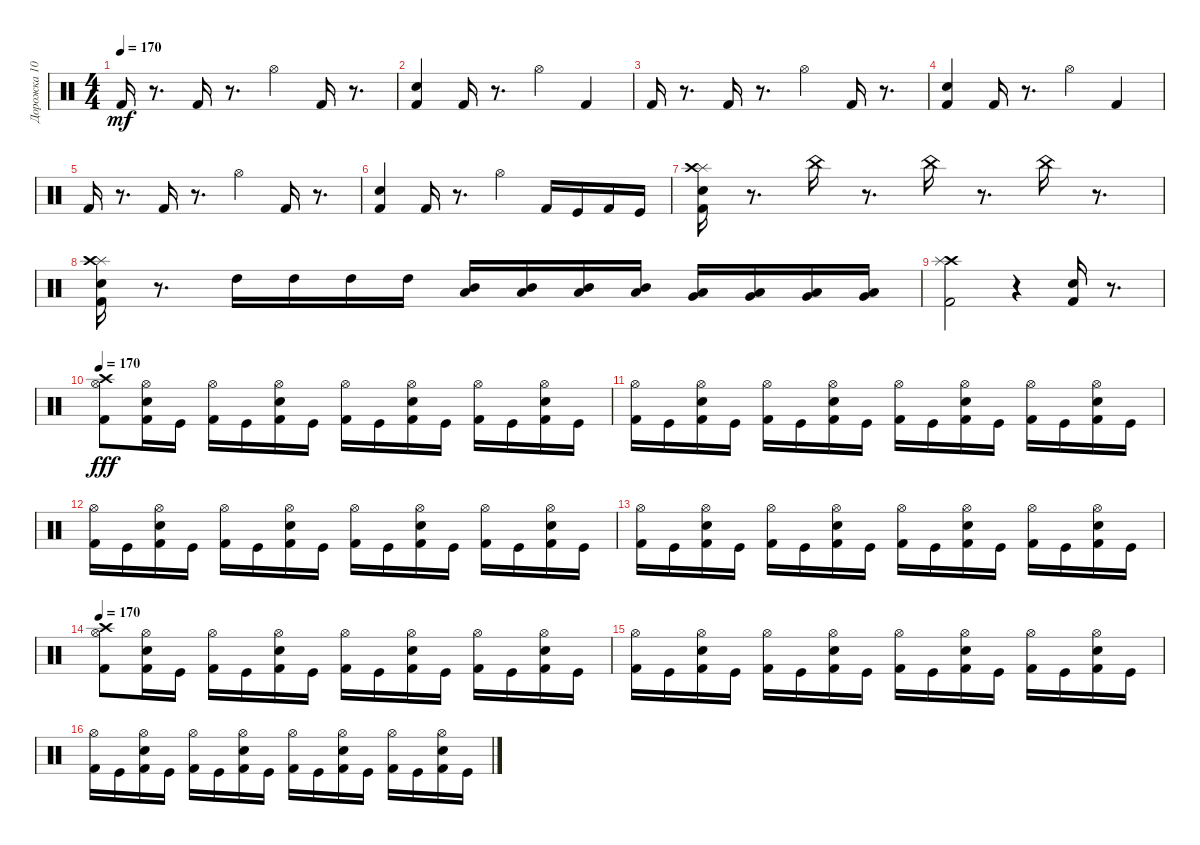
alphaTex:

\track ("Дорожка 10" "Дорожка 10") {instrument percussion}
\staff {score}
\articulation defaults
\ts (4 4)
\tempo 170
\clef neutral
\ks c "Kick (hit) 2".16{dy mf}
r.8{d} "Kick (hit) 2".16 r.8{d} "Hi-Hat (open)".4 "Kick (hit) 2".16 r.8{d} |
("Electric Snare (hit)" "Kick (hit) 2").4 "Kick (hit) 2".16 r.8{d} "Hi-Hat (open)".4 "Kick (hit) 2".4 |
"Kick (hit) 2".16 r.8{d} "Kick (hit) 2".16 r.8{d} "Hi-Hat (open)".4 "Kick (hit) 2".16 r.8{d} |
("Electric Snare (hit)" "Kick (hit) 2").4 "Kick (hit) 2".16 r.8{d} "Hi-Hat (open)".4 "Kick (hit) 2".4 |
"Kick (hit) 2".16 r.8{d} "Kick (hit) 2".16 r.8{d} "Hi-Hat (open)".4 "Kick (hit) 2".16 r.8{d} |
("Electric Snare (hit)" "Kick (hit) 2").4 "Kick (hit) 2".16 r.8{d} "Hi-Hat (open)".4 "Kick (hit) 2".16 "Kick (hit)".16 "Kick (hit) 2".16 "Kick (hit)".16 |
("Splash (hit)" "Electric Snare (hit)" "Crash high (hit)" "Kick (hit) 2").16 r.8{d} "China (hit)".16 r.8{d} "China (hit)".16 r.8{d} "China (hit)".16 r.8{d} |
("Splash (hit)" "Electric Snare (hit)" "Crash high (hit)" "Kick (hit) 2").16 r.8{d} "High Tom (hit)".16 "High Tom (hit)".16 "High Tom (hit)".16 "High Tom (hit)".16 ("Low Tom (hit)" "Mid Tom (hit)").16 ("Low Tom (hit)" "Mid Tom (hit)").16 ("Low Tom (hit)" "Mid Tom (hit)").16 ("Mid Tom (hit)" "Low Tom (hit)").16 ("Very Low Tom (hit)" "Low Floor Tom (hit)").16 ("Very Low Tom (hit)" "Low Floor Tom (hit)").16 ("Very Low Tom (hit)" "Low Floor Tom (hit)").16 ("Very Low Tom (hit)" "Low Floor Tom (hit)").16 |
("Crash high (hit)" "Splash (hit)" "Kick (hit) 2").2 r.4 ("Electric Snare (hit)" "Kick (hit) 2").16 r.8{d} |
\tempo 170
("Hi-Hat (open)" "Kick (hit) 2" "Crash high (hit)").8{dy fff} ("Electric Snare (hit)" "Kick (hit) 2" "Hi-Hat (open)").16 "Kick (hit)".16 ("Hi-Hat (open)" "Kick (hit) 2").16 "Kick (hit)".16 ("Hi-Hat (open)" "Electric Snare (hit)" "Kick (hit) 2").16 "Kick (hit)".16 ("Kick (hit) 2" "Hi-Hat (open)").16 "Kick (hit)".16 ("Hi-Hat (open)" "Electric Snare (hit)" "Kick (hit) 2").16 "Kick (hit)".16 ("Hi-Hat (open)" "Kick (hit) 2").16 "Kick (hit)".16 ("Hi-Hat (open)" "Electric Snare (hit)" "Kick (hit) 2").16 "Kick (hit)".16 |
("Hi-Hat (open)" "Kick (hit) 2").16 "Kick (hit)".16 ("Hi-Hat (open)" "Electric Snare (hit)" "Kick (hit) 2").16 "Kick (hit)".16 ("Hi-Hat (open)" "Kick (hit) 2").16 "Kick (hit)".16 ("Electric Snare (hit)" "Hi-Hat (open)" "Kick (hit) 2").16 "Kick (hit)".16 ("Kick (hit) 2" "Hi-Hat (open)").16 "Kick (hit)".16 ("Kick (hit) 2" "Hi-Hat (open)" "Electric Snare (hit)").16 "Kick (hit)".16 ("Hi-Hat (open)" "Kick (hit) 2").16 "Kick (hit)".16 ("Hi-Hat (open)" "Electric Snare (hit)" "Kick (hit) 2").16 "Kick (hit)".16 |
("Kick (hit) 2" "Hi-Hat (open)").16 "Kick (hit)".16 ("Kick (hit) 2" "Electric Snare (hit)" "Hi-Hat (open)").16 "Kick (hit)".16 ("Hi-Hat (open)" "Kick (hit) 2").16 "Kick (hit)".16 ("Kick (hit) 2" "Electric Snare (hit)" "Hi-Hat (open)").16 "Kick (hit)".16 ("Hi-Hat (open)" "Kick (hit) 2").16 "Kick (hit)".16 ("Electric Snare (hit)" "Kick (hit) 2" "Hi-Hat (open)").16 "Kick (hit)".16 ("Hi-Hat (open)" "Kick (hit) 2").16 "Kick (hit)".16 ("Electric Snare (hit)" "Hi-Hat (open)" "Kick (hit) 2").16 "Kick (hit)".16 |
("Kick (hit) 2" "Hi-Hat (open)").16 "Kick (hit)".16 ("Electric Snare (hit)" "Hi-Hat (open)" "Kick (hit) 2").16 "Kick (hit)".16 ("Kick (hit) 2" "Hi-Hat (open)").16 "Kick (hit)".16 ("Kick (hit) 2" "Electric Snare (hit)" "Hi-Hat (open)").16 "Kick (hit)".16 ("Hi-Hat (open)" "Kick (hit) 2").16 "Kick (hit)".16 ("Hi-Hat (open)" "Electric Snare (hit)" "Kick (hit) 2").16 "Kick (hit)".16 ("Hi-Hat (open)" "Kick (hit) 2").16 "Kick (hit)".16 ("Hi-Hat (open)" "Kick (hit) 2" "Electric Snare (hit)").16 "Kick (hit)".16 |
\tempo 170
("Kick (hit) 2" "Hi-Hat (open)" "Crash high (hit)").8 ("Kick (hit) 2" "Hi-Hat (open)" "Electric Snare (hit)").16 "Kick (hit)".16 ("Hi-Hat (open)" "Kick (hit) 2").16 "Kick (hit)".16 ("Electric Snare (hit)" "Hi-Hat (open)" "Kick (hit) 2").16 "Kick (hit)".16 ("Hi-Hat (open)" "Kick (hit) 2").16 "Kick (hit)".16 ("Kick (hit) 2" "Electric Snare (hit)" "Hi-Hat (open)").16 "Kick (hit)".16 ("Kick (hit) 2" "Hi-Hat (open)").16 "Kick (hit)".16 ("Electric Snare (hit)" "Hi-Hat (open)" "Kick (hit) 2").16 "Kick (hit)".16 |
("Hi-Hat (open)" "Kick (hit) 2").16 "Kick (hit)".16 ("Hi-Hat (open)" "Kick (hit) 2" "Electric Snare (hit)").16 "Kick (hit)".16 ("Hi-Hat (open)" "Kick (hit) 2").16 "Kick (hit)".16 ("Hi-Hat (open)" "Kick (hit) 2" "Electric Snare (hit)").16 "Kick (hit)".16 ("Hi-Hat (open)" "Kick (hit) 2").16 "Kick (hit)".16 ("Electric Snare (hit)" "Kick (hit) 2" "Hi-Hat (open)").16 "Kick (hit)".16 ("Hi-Hat (open)" "Kick (hit) 2").16 "Kick (hit)".16 ("Kick (hit) 2" "Electric Snare (hit)" "Hi-Hat (open)").16 "Kick (hit)".16 |
("Kick (hit) 2" "Hi-Hat (open)").16 "Kick (hit)".16 ("Kick (hit) 2" "Electric Snare (hit)" "Hi-Hat (open)").16 "Kick (hit)".16 ("Kick (hit) 2" "Hi-Hat (open)").16 "Kick (hit)".16 ("Electric Snare (hit)" "Kick (hit) 2" "Hi-Hat (open)").16 "Kick (hit)".16 ("Hi-Hat (open)" "Kick (hit) 2").16 "Kick (hit)".16 ("Hi-Hat (open)" "Kick (hit) 2" "Electric Snare (hit)").16 "Kick (hit)".16 ("Hi-Hat (open)" "Kick (hit) 2").16 "Kick (hit)".16 ("Kick (hit) 2" "Hi-Hat (open)" "Electric Snare (hit)").16 "Kick (hit)".16
